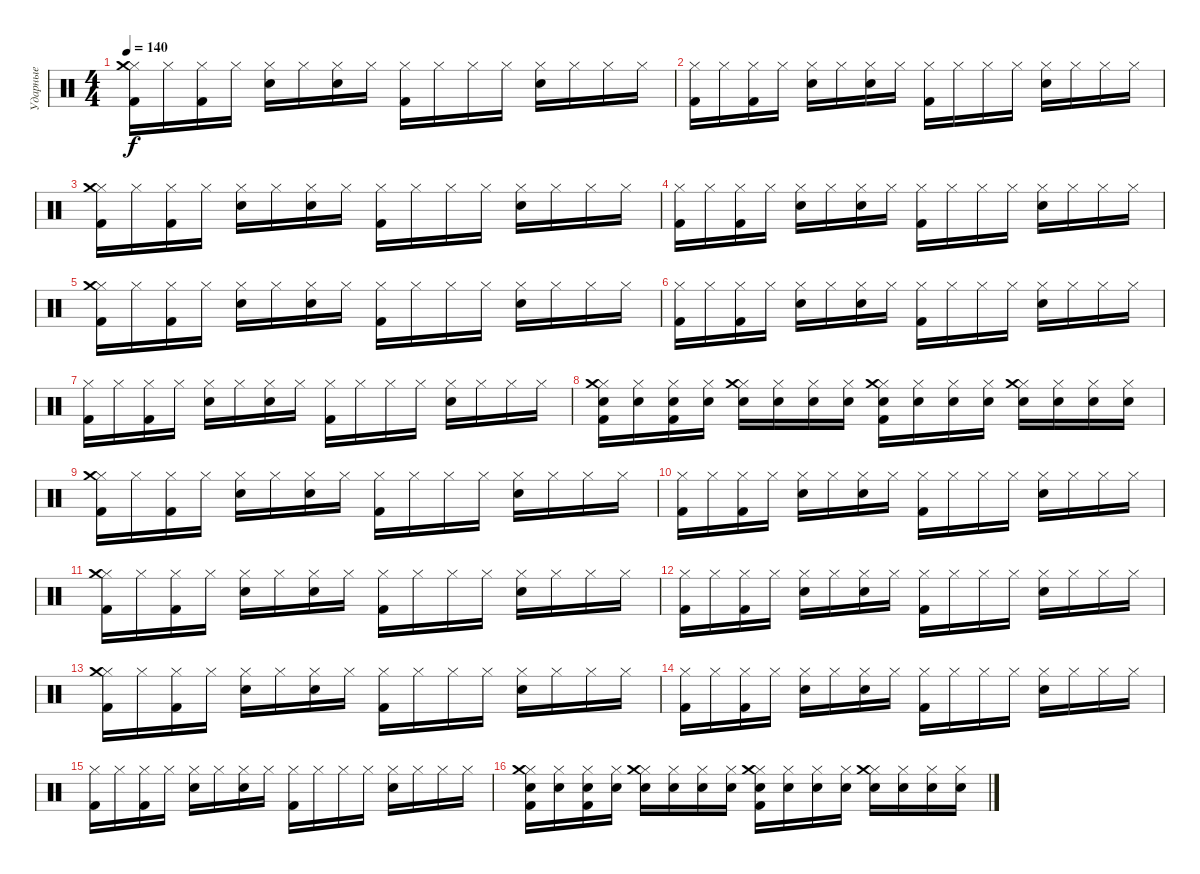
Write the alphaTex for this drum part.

\track ("Ударные" "Ударные") {instrument percussion}
\staff {score}
\articulation defaults
\ts (4 4)
\tempo 140
\clef neutral
\ks c
("Hi-Hat (closed)" "Kick (hit) 2" "Crash medium (hit)").16{dy f} "Hi-Hat (closed)".16 ("Hi-Hat (closed)" "Kick (hit) 2").16 "Hi-Hat (closed)".16 ("Hi-Hat (closed)" "Electric Snare (hit)").16 "Hi-Hat (closed)".16 ("Hi-Hat (closed)" "Electric Snare (hit)").16 "Hi-Hat (closed)".16 ("Hi-Hat (closed)" "Kick (hit) 2").16 "Hi-Hat (closed)".16 "Hi-Hat (closed)".16 "Hi-Hat (closed)".16 ("Hi-Hat (closed)" "Electric Snare (hit)").16 "Hi-Hat (closed)".16 "Hi-Hat (closed)".16 "Hi-Hat (closed)".16 |
("Hi-Hat (closed)" "Kick (hit) 2").16 "Hi-Hat (closed)".16 ("Hi-Hat (closed)" "Kick (hit) 2").16 "Hi-Hat (closed)".16 ("Hi-Hat (closed)" "Electric Snare (hit)").16 "Hi-Hat (closed)".16 ("Hi-Hat (closed)" "Electric Snare (hit)").16 "Hi-Hat (closed)".16 ("Hi-Hat (closed)" "Kick (hit) 2").16 "Hi-Hat (closed)".16 "Hi-Hat (closed)".16 "Hi-Hat (closed)".16 ("Hi-Hat (closed)" "Electric Snare (hit)").16 "Hi-Hat (closed)".16 "Hi-Hat (closed)".16 "Hi-Hat (closed)".16 |
("Hi-Hat (closed)" "Kick (hit) 2" "Crash medium (hit)").16 "Hi-Hat (closed)".16 ("Hi-Hat (closed)" "Kick (hit) 2").16 "Hi-Hat (closed)".16 ("Hi-Hat (closed)" "Electric Snare (hit)").16 "Hi-Hat (closed)".16 ("Hi-Hat (closed)" "Electric Snare (hit)").16 "Hi-Hat (closed)".16 ("Hi-Hat (closed)" "Kick (hit) 2").16 "Hi-Hat (closed)".16 "Hi-Hat (closed)".16 "Hi-Hat (closed)".16 ("Hi-Hat (closed)" "Electric Snare (hit)").16 "Hi-Hat (closed)".16 "Hi-Hat (closed)".16 "Hi-Hat (closed)".16 |
("Hi-Hat (closed)" "Kick (hit) 2").16 "Hi-Hat (closed)".16 ("Hi-Hat (closed)" "Kick (hit) 2").16 "Hi-Hat (closed)".16 ("Hi-Hat (closed)" "Electric Snare (hit)").16 "Hi-Hat (closed)".16 ("Hi-Hat (closed)" "Electric Snare (hit)").16 "Hi-Hat (closed)".16 ("Hi-Hat (closed)" "Kick (hit) 2").16 "Hi-Hat (closed)".16 "Hi-Hat (closed)".16 "Hi-Hat (closed)".16 ("Hi-Hat (closed)" "Electric Snare (hit)").16 "Hi-Hat (closed)".16 "Hi-Hat (closed)".16 "Hi-Hat (closed)".16 |
("Hi-Hat (closed)" "Kick (hit) 2" "Crash medium (hit)").16 "Hi-Hat (closed)".16 ("Hi-Hat (closed)" "Kick (hit) 2").16 "Hi-Hat (closed)".16 ("Hi-Hat (closed)" "Electric Snare (hit)").16 "Hi-Hat (closed)".16 ("Hi-Hat (closed)" "Electric Snare (hit)").16 "Hi-Hat (closed)".16 ("Hi-Hat (closed)" "Kick (hit) 2").16 "Hi-Hat (closed)".16 "Hi-Hat (closed)".16 "Hi-Hat (closed)".16 ("Hi-Hat (closed)" "Electric Snare (hit)").16 "Hi-Hat (closed)".16 "Hi-Hat (closed)".16 "Hi-Hat (closed)".16 |
("Hi-Hat (closed)" "Kick (hit) 2").16 "Hi-Hat (closed)".16 ("Hi-Hat (closed)" "Kick (hit) 2").16 "Hi-Hat (closed)".16 ("Hi-Hat (closed)" "Electric Snare (hit)").16 "Hi-Hat (closed)".16 ("Hi-Hat (closed)" "Electric Snare (hit)").16 "Hi-Hat (closed)".16 ("Hi-Hat (closed)" "Kick (hit) 2").16 "Hi-Hat (closed)".16 "Hi-Hat (closed)".16 "Hi-Hat (closed)".16 ("Hi-Hat (closed)" "Electric Snare (hit)").16 "Hi-Hat (closed)".16 "Hi-Hat (closed)".16 "Hi-Hat (closed)".16 |
("Hi-Hat (closed)" "Kick (hit) 2").16 "Hi-Hat (closed)".16 ("Hi-Hat (closed)" "Kick (hit) 2").16 "Hi-Hat (closed)".16 ("Hi-Hat (closed)" "Electric Snare (hit)").16 "Hi-Hat (closed)".16 ("Hi-Hat (closed)" "Electric Snare (hit)").16 "Hi-Hat (closed)".16 ("Hi-Hat (closed)" "Kick (hit) 2").16 "Hi-Hat (closed)".16 "Hi-Hat (closed)".16 "Hi-Hat (closed)".16 ("Hi-Hat (closed)" "Electric Snare (hit)").16 "Hi-Hat (closed)".16 "Hi-Hat (closed)".16 "Hi-Hat (closed)".16 |
("Hi-Hat (closed)" "Kick (hit) 2" "Electric Snare (hit)" "Crash medium (hit)").16 ("Hi-Hat (closed)" "Electric Snare (hit)").16 ("Hi-Hat (closed)" "Kick (hit) 2" "Electric Snare (hit)").16 ("Hi-Hat (closed)" "Electric Snare (hit)").16 ("Hi-Hat (closed)" "Electric Snare (hit)" "Crash medium (hit)").16 ("Hi-Hat (closed)" "Electric Snare (hit)").16 ("Hi-Hat (closed)" "Electric Snare (hit)").16 ("Hi-Hat (closed)" "Electric Snare (hit)").16 ("Hi-Hat (closed)" "Electric Snare (hit)" "Kick (hit) 2" "Crash medium (hit)").16 ("Hi-Hat (closed)" "Electric Snare (hit)").16 ("Hi-Hat (closed)" "Electric Snare (hit)").16 ("Hi-Hat (closed)" "Electric Snare (hit)").16 ("Hi-Hat (closed)" "Electric Snare (hit)" "Crash medium (hit)").16 ("Hi-Hat (closed)" "Electric Snare (hit)").16 ("Hi-Hat (closed)" "Electric Snare (hit)").16 ("Hi-Hat (closed)" "Electric Snare (hit)").16 |
("Hi-Hat (closed)" "Kick (hit) 2" "Crash medium (hit)").16 "Hi-Hat (closed)".16 ("Hi-Hat (closed)" "Kick (hit) 2").16 "Hi-Hat (closed)".16 ("Hi-Hat (closed)" "Electric Snare (hit)").16 "Hi-Hat (closed)".16 ("Hi-Hat (closed)" "Electric Snare (hit)").16 "Hi-Hat (closed)".16 ("Hi-Hat (closed)" "Kick (hit) 2").16 "Hi-Hat (closed)".16 "Hi-Hat (closed)".16 "Hi-Hat (closed)".16 ("Hi-Hat (closed)" "Electric Snare (hit)").16 "Hi-Hat (closed)".16 "Hi-Hat (closed)".16 "Hi-Hat (closed)".16 |
("Hi-Hat (closed)" "Kick (hit) 2").16 "Hi-Hat (closed)".16 ("Hi-Hat (closed)" "Kick (hit) 2").16 "Hi-Hat (closed)".16 ("Hi-Hat (closed)" "Electric Snare (hit)").16 "Hi-Hat (closed)".16 ("Hi-Hat (closed)" "Electric Snare (hit)").16 "Hi-Hat (closed)".16 ("Hi-Hat (closed)" "Kick (hit) 2").16 "Hi-Hat (closed)".16 "Hi-Hat (closed)".16 "Hi-Hat (closed)".16 ("Hi-Hat (closed)" "Electric Snare (hit)").16 "Hi-Hat (closed)".16 "Hi-Hat (closed)".16 "Hi-Hat (closed)".16 |
("Hi-Hat (closed)" "Kick (hit) 2" "Crash medium (hit)").16 "Hi-Hat (closed)".16 ("Hi-Hat (closed)" "Kick (hit) 2").16 "Hi-Hat (closed)".16 ("Hi-Hat (closed)" "Electric Snare (hit)").16 "Hi-Hat (closed)".16 ("Hi-Hat (closed)" "Electric Snare (hit)").16 "Hi-Hat (closed)".16 ("Hi-Hat (closed)" "Kick (hit) 2").16 "Hi-Hat (closed)".16 "Hi-Hat (closed)".16 "Hi-Hat (closed)".16 ("Hi-Hat (closed)" "Electric Snare (hit)").16 "Hi-Hat (closed)".16 "Hi-Hat (closed)".16 "Hi-Hat (closed)".16 |
("Hi-Hat (closed)" "Kick (hit) 2").16 "Hi-Hat (closed)".16 ("Hi-Hat (closed)" "Kick (hit) 2").16 "Hi-Hat (closed)".16 ("Hi-Hat (closed)" "Electric Snare (hit)").16 "Hi-Hat (closed)".16 ("Hi-Hat (closed)" "Electric Snare (hit)").16 "Hi-Hat (closed)".16 ("Hi-Hat (closed)" "Kick (hit) 2").16 "Hi-Hat (closed)".16 "Hi-Hat (closed)".16 "Hi-Hat (closed)".16 ("Hi-Hat (closed)" "Electric Snare (hit)").16 "Hi-Hat (closed)".16 "Hi-Hat (closed)".16 "Hi-Hat (closed)".16 |
("Hi-Hat (closed)" "Kick (hit) 2" "Crash medium (hit)").16 "Hi-Hat (closed)".16 ("Hi-Hat (closed)" "Kick (hit) 2").16 "Hi-Hat (closed)".16 ("Hi-Hat (closed)" "Electric Snare (hit)").16 "Hi-Hat (closed)".16 ("Hi-Hat (closed)" "Electric Snare (hit)").16 "Hi-Hat (closed)".16 ("Hi-Hat (closed)" "Kick (hit) 2").16 "Hi-Hat (closed)".16 "Hi-Hat (closed)".16 "Hi-Hat (closed)".16 ("Hi-Hat (closed)" "Electric Snare (hit)").16 "Hi-Hat (closed)".16 "Hi-Hat (closed)".16 "Hi-Hat (closed)".16 |
("Hi-Hat (closed)" "Kick (hit) 2").16 "Hi-Hat (closed)".16 ("Hi-Hat (closed)" "Kick (hit) 2").16 "Hi-Hat (closed)".16 ("Hi-Hat (closed)" "Electric Snare (hit)").16 "Hi-Hat (closed)".16 ("Hi-Hat (closed)" "Electric Snare (hit)").16 "Hi-Hat (closed)".16 ("Hi-Hat (closed)" "Kick (hit) 2").16 "Hi-Hat (closed)".16 "Hi-Hat (closed)".16 "Hi-Hat (closed)".16 ("Hi-Hat (closed)" "Electric Snare (hit)").16 "Hi-Hat (closed)".16 "Hi-Hat (closed)".16 "Hi-Hat (closed)".16 |
("Hi-Hat (closed)" "Kick (hit) 2").16 "Hi-Hat (closed)".16 ("Hi-Hat (closed)" "Kick (hit) 2").16 "Hi-Hat (closed)".16 ("Hi-Hat (closed)" "Electric Snare (hit)").16 "Hi-Hat (closed)".16 ("Hi-Hat (closed)" "Electric Snare (hit)").16 "Hi-Hat (closed)".16 ("Hi-Hat (closed)" "Kick (hit) 2").16 "Hi-Hat (closed)".16 "Hi-Hat (closed)".16 "Hi-Hat (closed)".16 ("Hi-Hat (closed)" "Electric Snare (hit)").16 "Hi-Hat (closed)".16 "Hi-Hat (closed)".16 "Hi-Hat (closed)".16 |
("Hi-Hat (closed)" "Kick (hit) 2" "Electric Snare (hit)" "Crash medium (hit)").16 ("Hi-Hat (closed)" "Electric Snare (hit)").16 ("Hi-Hat (closed)" "Kick (hit) 2" "Electric Snare (hit)").16 ("Hi-Hat (closed)" "Electric Snare (hit)").16 ("Hi-Hat (closed)" "Electric Snare (hit)" "Crash medium (hit)").16 ("Hi-Hat (closed)" "Electric Snare (hit)").16 ("Hi-Hat (closed)" "Electric Snare (hit)").16 ("Hi-Hat (closed)" "Electric Snare (hit)").16 ("Hi-Hat (closed)" "Electric Snare (hit)" "Kick (hit) 2" "Crash medium (hit)").16 ("Hi-Hat (closed)" "Electric Snare (hit)").16 ("Hi-Hat (closed)" "Electric Snare (hit)").16 ("Hi-Hat (closed)" "Electric Snare (hit)").16 ("Hi-Hat (closed)" "Electric Snare (hit)" "Crash medium (hit)").16 ("Hi-Hat (closed)" "Electric Snare (hit)").16 ("Hi-Hat (closed)" "Electric Snare (hit)").16 ("Hi-Hat (closed)" "Electric Snare (hit)").16
